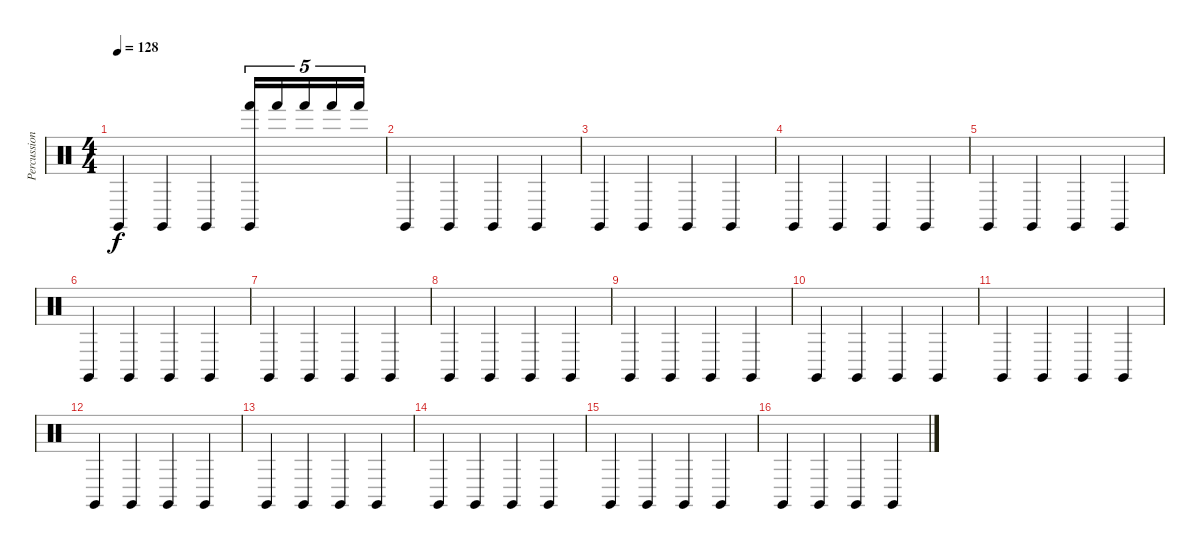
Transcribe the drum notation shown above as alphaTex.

\track ("Percussion" "Percussion") {instrument percussion}
\staff {score}
\articulation defaults
\ts (4 4)
\tempo 128
\clef neutral
\ks c "Claves (hit)".4{dy f} "Claves (hit)".4 "Claves (hit)".4
("Claves (hit)" "Hand (hit)").16{tu (5 4)} "Hand (hit)".16{tu (5 4)} "Hand (hit)".16{tu (5 4)} "Hand (hit)".16{tu (5 4)} "Hand (hit)".16{tu (5 4)} |
"Claves (hit)".4 "Claves (hit)".4 "Claves (hit)".4 "Claves (hit)".4 |
"Claves (hit)".4 "Claves (hit)".4 "Claves (hit)".4 "Claves (hit)".4 |
"Claves (hit)".4 "Claves (hit)".4 "Claves (hit)".4 "Claves (hit)".4 |
"Claves (hit)".4 "Claves (hit)".4 "Claves (hit)".4 "Claves (hit)".4 |
"Claves (hit)".4 "Claves (hit)".4 "Claves (hit)".4 "Claves (hit)".4 |
"Claves (hit)".4 "Claves (hit)".4 "Claves (hit)".4 "Claves (hit)".4 |
"Claves (hit)".4 "Claves (hit)".4 "Claves (hit)".4 "Claves (hit)".4 |
"Claves (hit)".4 "Claves (hit)".4 "Claves (hit)".4 "Claves (hit)".4 |
"Claves (hit)".4 "Claves (hit)".4 "Claves (hit)".4 "Claves (hit)".4 |
"Claves (hit)".4 "Claves (hit)".4 "Claves (hit)".4 "Claves (hit)".4 |
"Claves (hit)".4 "Claves (hit)".4 "Claves (hit)".4 "Claves (hit)".4 |
"Claves (hit)".4 "Claves (hit)".4 "Claves (hit)".4 "Claves (hit)".4 |
"Claves (hit)".4 "Claves (hit)".4 "Claves (hit)".4 "Claves (hit)".4 |
"Claves (hit)".4 "Claves (hit)".4 "Claves (hit)".4 "Claves (hit)".4 |
"Claves (hit)".4 "Claves (hit)".4 "Claves (hit)".4 "Claves (hit)".4
